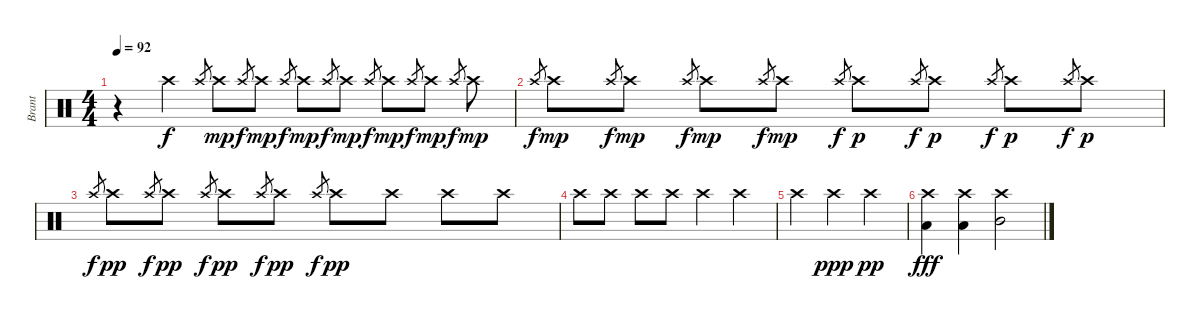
\track ("Brant" "Brant") {instrument percussion}
\staff {score}
\articulation defaults
\ts (4 4)
\tempo 92
\clef neutral
\ks c
r.4{dy f} "Crash high (hit)".4 "Crash high (hit)".8{gr} "Crash high (hit)".8{dy mp} "Crash high (hit)".8{gr dy f} "Crash high (hit)".8{dy mp} "Crash high (hit)".8{gr dy f} "Crash high (hit)".8{dy mp} "Crash high (hit)".8{gr dy f} "Crash high (hit)".8{dy mp} "Crash high (hit)".8{gr dy f} "Crash high (hit)".8{dy mp} "Crash high (hit)".8{gr dy f} "Crash high (hit)".8{dy mp} "Crash high (hit)".8{gr dy f} "Crash high (hit)".8{dy mp} |
"Crash high (hit)".8{gr dy f} "Crash high (hit)".8{dy mp} "Crash high (hit)".8{gr dy f} "Crash high (hit)".8{dy mp} "Crash high (hit)".8{gr dy f} "Crash high (hit)".8{dy mp} "Crash high (hit)".8{gr dy f} "Crash high (hit)".8{dy mp} "Crash high (hit)".8{gr dy f} "Crash high (hit)".8{dy p} "Crash high (hit)".8{gr dy f} "Crash high (hit)".8{dy p} "Crash high (hit)".8{gr dy f} "Crash high (hit)".8{dy p} "Crash high (hit)".8{gr dy f} "Crash high (hit)".8{dy p} |
"Crash high (hit)".8{gr dy f} "Crash high (hit)".8{dy pp} "Crash high (hit)".8{gr dy f} "Crash high (hit)".8{dy pp} "Crash high (hit)".8{gr dy f} "Crash high (hit)".8{dy pp} "Crash high (hit)".8{gr dy f} "Crash high (hit)".8{dy pp} "Crash high (hit)".8{gr dy f} "Crash high (hit)".8{dy pp} "Crash high (hit)".8 "Crash high (hit)".8 "Crash high (hit)".8 |
"Crash high (hit)".8 "Crash high (hit)".8 "Crash high (hit)".8 "Crash high (hit)".8 "Crash high (hit)".4 "Crash high (hit)".4 |
"Crash high (hit)".4 "Crash high (hit)".4{dy ppp} "Crash high (hit)".4{dy pp} |
("Low Tom (hit)" "Crash high (hit)").4{dy fff} ("Low Floor Tom (hit)" "Crash high (hit)").4 ("Mid Tom (hit)" "Crash high (hit)").2
